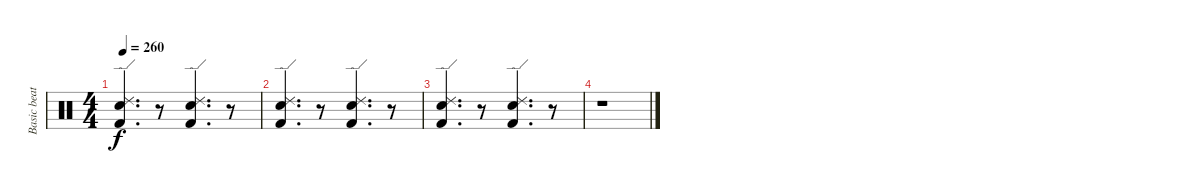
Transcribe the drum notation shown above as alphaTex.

\track ("Basic beat" "Basic beat") {instrument percussion}
\staff {score}
\articulation defaults
\ts (4 4)
\tempo 260
\clef neutral
\ks c
("Ride (edge) 2" "Electric Snare (hit)" "Kick (hit) 2").4{d dy f} r.8 ("Ride (edge) 2" "Electric Snare (hit)" "Kick (hit) 2").4{d} r.8 |
("Ride (edge) 2" "Electric Snare (hit)" "Kick (hit) 2").4{d} r.8 ("Ride (edge) 2" "Electric Snare (hit)" "Kick (hit) 2").4{d} r.8 |
("Ride (edge) 2" "Electric Snare (hit)" "Kick (hit) 2").4{d} r.8 ("Ride (edge) 2" "Electric Snare (hit)" "Kick (hit) 2").4{d} r.8 |
r.1
